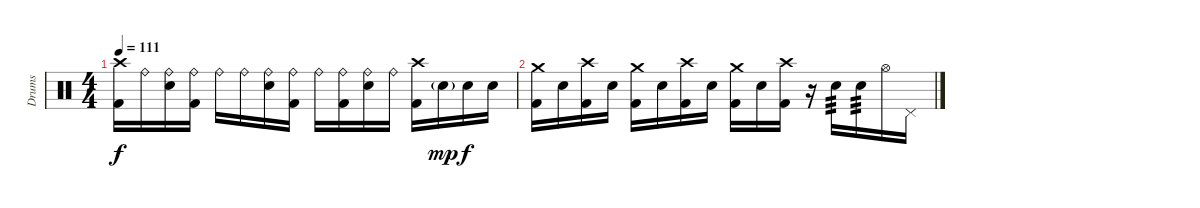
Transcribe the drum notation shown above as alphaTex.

\track ("Drums" "Drums") {instrument percussion}
\staff {score}
\articulation defaults
\ts (4 4)
\tempo 111
\clef neutral
\ks c
("Crash high (hit)" "Kick (hit) 2").16{dy f} "Ride (bell)".16 ("Ride (bell)" "Electric Snare (hit)").16 ("Ride (bell)" "Kick (hit) 2").16 "Ride (bell)".16 "Ride (bell)".16 ("Ride (bell)" "Electric Snare (hit)").16 ("Ride (bell)" "Kick (hit) 2").16 "Ride (bell)".16 ("Ride (bell)" "Kick (hit) 2").16 ("Ride (bell)" "Electric Snare (hit)").16 "Ride (bell)".16 ("Crash high (hit)" "Kick (hit) 2").16 "Electric Snare (hit)"{g}.16{dy mp} "Electric Snare (hit)".16{dy f} "Electric Snare (hit)".16 |
("Crash medium (hit)" "Kick (hit) 2").16 "Electric Snare (hit)".16 ("Crash high (hit)" "Kick (hit) 2").16 "Electric Snare (hit)".16 ("Crash medium (hit)" "Kick (hit) 2").16 "Electric Snare (hit)".16 ("Crash high (hit)" "Kick (hit) 2").16 "Electric Snare (hit)".16 ("Crash medium (hit)" "Kick (hit) 2").16 "Electric Snare (hit)".16 ("Crash high (hit)" "Kick (hit) 2").16 r.16 "Electric Snare (hit)".16{tp 3} "Electric Snare (hit)".16{tp 3} "Hi-Hat (open)".16 "Pedal Hi-Hat (hit)".16
